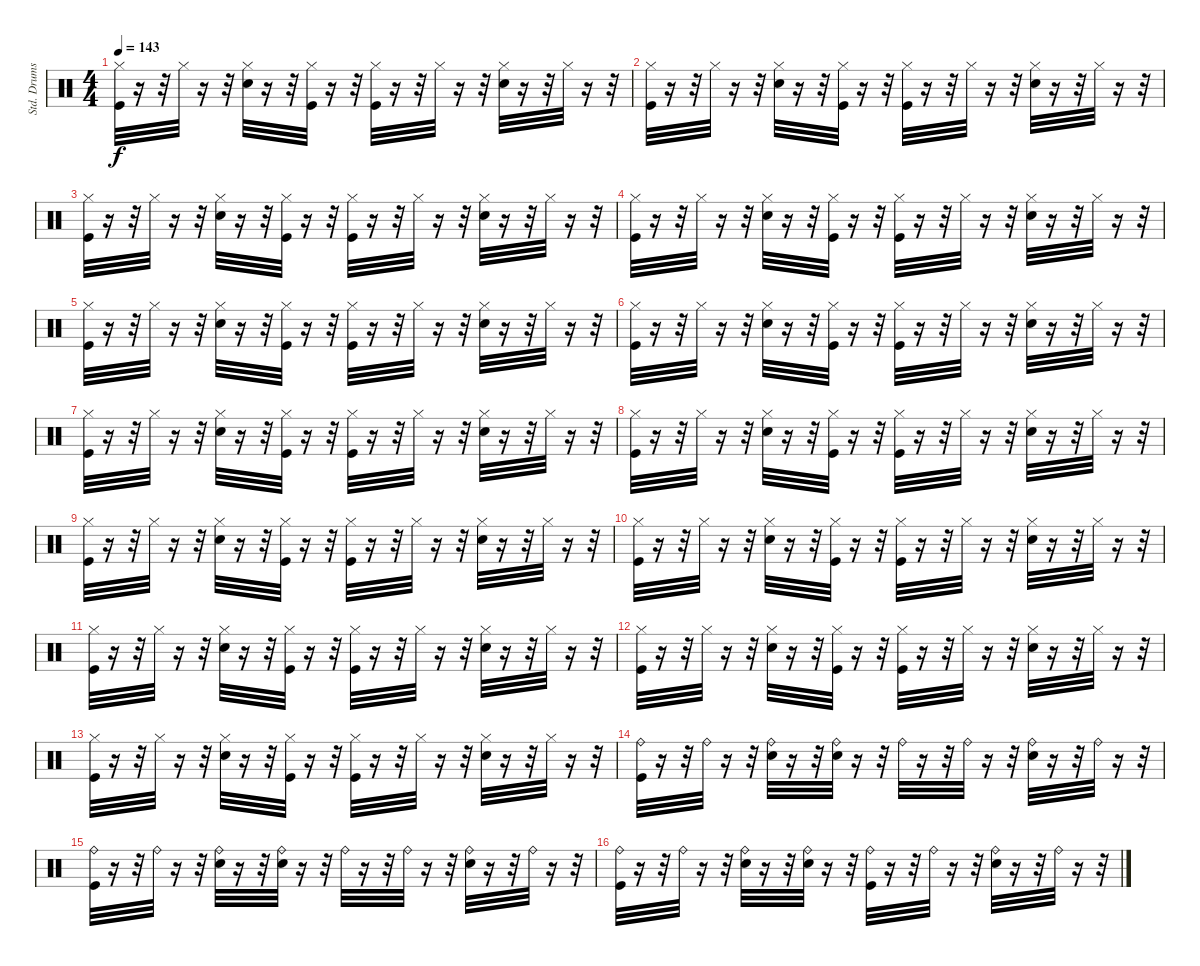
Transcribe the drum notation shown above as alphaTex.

\track ("Std. Drums " "Std. Drums") {instrument percussion}
\staff {score}
\articulation defaults
\ts (4 4)
\tempo 143
\clef neutral
\ks c
("Hi-Hat (closed)" "Kick (hit)").32{dy f} r.16 r.32 "Hi-Hat (closed)".32 r.16 r.32 ("Hi-Hat (closed)" "Snare (hit) 2").32 r.16 r.32 ("Hi-Hat (closed)" "Kick (hit)").32 r.16 r.32 ("Hi-Hat (closed)" "Kick (hit)").32 r.16 r.32 "Hi-Hat (closed)".32 r.16 r.32 ("Hi-Hat (closed)" "Snare (hit) 2").32 r.16 r.32 "Hi-Hat (closed)".32 r.16 r.32 |
("Hi-Hat (closed)" "Kick (hit)").32 r.16 r.32 "Hi-Hat (closed)".32 r.16 r.32 ("Hi-Hat (closed)" "Snare (hit) 2").32 r.16 r.32 ("Hi-Hat (closed)" "Kick (hit)").32 r.16 r.32 ("Hi-Hat (closed)" "Kick (hit)").32 r.16 r.32 "Hi-Hat (closed)".32 r.16 r.32 ("Hi-Hat (closed)" "Snare (hit) 2").32 r.16 r.32 "Hi-Hat (closed)".32 r.16 r.32 |
("Hi-Hat (closed)" "Kick (hit)").32 r.16 r.32 "Hi-Hat (closed)".32 r.16 r.32 ("Hi-Hat (closed)" "Snare (hit) 2").32 r.16 r.32 ("Hi-Hat (closed)" "Kick (hit)").32 r.16 r.32 ("Hi-Hat (closed)" "Kick (hit)").32 r.16 r.32 "Hi-Hat (closed)".32 r.16 r.32 ("Hi-Hat (closed)" "Snare (hit) 2").32 r.16 r.32 "Hi-Hat (closed)".32 r.16 r.32 |
("Hi-Hat (closed)" "Kick (hit)").32 r.16 r.32 "Hi-Hat (closed)".32 r.16 r.32 ("Hi-Hat (closed)" "Snare (hit) 2").32 r.16 r.32 ("Hi-Hat (closed)" "Kick (hit)").32 r.16 r.32 ("Hi-Hat (closed)" "Kick (hit)").32 r.16 r.32 "Hi-Hat (closed)".32 r.16 r.32 ("Hi-Hat (closed)" "Snare (hit) 2").32 r.16 r.32 "Hi-Hat (closed)".32 r.16 r.32 |
("Hi-Hat (closed)" "Kick (hit)").32 r.16 r.32 "Hi-Hat (closed)".32 r.16 r.32 ("Hi-Hat (closed)" "Snare (hit) 2").32 r.16 r.32 ("Hi-Hat (closed)" "Kick (hit)").32 r.16 r.32 ("Hi-Hat (closed)" "Kick (hit)").32 r.16 r.32 "Hi-Hat (closed)".32 r.16 r.32 ("Hi-Hat (closed)" "Snare (hit) 2").32 r.16 r.32 "Hi-Hat (closed)".32 r.16 r.32 |
("Hi-Hat (closed)" "Kick (hit)").32 r.16 r.32 "Hi-Hat (closed)".32 r.16 r.32 ("Hi-Hat (closed)" "Snare (hit) 2").32 r.16 r.32 ("Hi-Hat (closed)" "Kick (hit)").32 r.16 r.32 ("Hi-Hat (closed)" "Kick (hit)").32 r.16 r.32 "Hi-Hat (closed)".32 r.16 r.32 ("Hi-Hat (closed)" "Snare (hit) 2").32 r.16 r.32 "Hi-Hat (closed)".32 r.16 r.32 |
("Hi-Hat (closed)" "Kick (hit)").32 r.16 r.32 "Hi-Hat (closed)".32 r.16 r.32 ("Hi-Hat (closed)" "Snare (hit) 2").32 r.16 r.32 ("Hi-Hat (closed)" "Kick (hit)").32 r.16 r.32 ("Hi-Hat (closed)" "Kick (hit)").32 r.16 r.32 "Hi-Hat (closed)".32 r.16 r.32 ("Hi-Hat (closed)" "Snare (hit) 2").32 r.16 r.32 "Hi-Hat (closed)".32 r.16 r.32 |
("Hi-Hat (closed)" "Kick (hit)").32 r.16 r.32 "Hi-Hat (closed)".32 r.16 r.32 ("Hi-Hat (closed)" "Snare (hit) 2").32 r.16 r.32 ("Hi-Hat (closed)" "Kick (hit)").32 r.16 r.32 ("Hi-Hat (closed)" "Kick (hit)").32 r.16 r.32 "Hi-Hat (closed)".32 r.16 r.32 ("Hi-Hat (closed)" "Snare (hit) 2").32 r.16 r.32 "Hi-Hat (closed)".32 r.16 r.32 |
("Hi-Hat (closed)" "Kick (hit)").32 r.16 r.32 "Hi-Hat (closed)".32 r.16 r.32 ("Hi-Hat (closed)" "Snare (hit) 2").32 r.16 r.32 ("Hi-Hat (closed)" "Kick (hit)").32 r.16 r.32 ("Hi-Hat (closed)" "Kick (hit)").32 r.16 r.32 "Hi-Hat (closed)".32 r.16 r.32 ("Hi-Hat (closed)" "Snare (hit) 2").32 r.16 r.32 "Hi-Hat (closed)".32 r.16 r.32 |
("Hi-Hat (closed)" "Kick (hit)").32 r.16 r.32 "Hi-Hat (closed)".32 r.16 r.32 ("Hi-Hat (closed)" "Snare (hit) 2").32 r.16 r.32 ("Hi-Hat (closed)" "Kick (hit)").32 r.16 r.32 ("Hi-Hat (closed)" "Kick (hit)").32 r.16 r.32 "Hi-Hat (closed)".32 r.16 r.32 ("Hi-Hat (closed)" "Snare (hit) 2").32 r.16 r.32 "Hi-Hat (closed)".32 r.16 r.32 |
("Hi-Hat (closed)" "Kick (hit)").32 r.16 r.32 "Hi-Hat (closed)".32 r.16 r.32 ("Hi-Hat (closed)" "Snare (hit) 2").32 r.16 r.32 ("Hi-Hat (closed)" "Kick (hit)").32 r.16 r.32 ("Hi-Hat (closed)" "Kick (hit)").32 r.16 r.32 "Hi-Hat (closed)".32 r.16 r.32 ("Hi-Hat (closed)" "Snare (hit) 2").32 r.16 r.32 "Hi-Hat (closed)".32 r.16 r.32 |
("Hi-Hat (closed)" "Kick (hit)").32 r.16 r.32 "Hi-Hat (closed)".32 r.16 r.32 ("Hi-Hat (closed)" "Snare (hit) 2").32 r.16 r.32 ("Hi-Hat (closed)" "Kick (hit)").32 r.16 r.32 ("Hi-Hat (closed)" "Kick (hit)").32 r.16 r.32 "Hi-Hat (closed)".32 r.16 r.32 ("Hi-Hat (closed)" "Snare (hit) 2").32 r.16 r.32 "Hi-Hat (closed)".32 r.16 r.32 |
("Hi-Hat (closed)" "Kick (hit)").32 r.16 r.32 "Hi-Hat (closed)".32 r.16 r.32 ("Hi-Hat (closed)" "Snare (hit) 2").32 r.16 r.32 ("Hi-Hat (closed)" "Kick (hit)").32 r.16 r.32 ("Hi-Hat (closed)" "Kick (hit)").32 r.16 r.32 "Hi-Hat (closed)".32 r.16 r.32 ("Hi-Hat (closed)" "Snare (hit) 2").32 r.16 r.32 "Hi-Hat (closed)".32 r.16 r.32 |
("Kick (hit)" "Ride (bell)").32 r.16 r.32 "Ride (bell)".32 r.16 r.32 ("Ride (bell)" "Snare (hit) 2").32 r.16 r.32 ("Ride (bell)" "Snare (hit) 2").32 r.16 r.32 "Ride (bell)".32 r.16 r.32 "Ride (bell)".32 r.16 r.32 ("Ride (bell)" "Snare (hit) 2").32 r.16 r.32 "Ride (bell)".32 r.16 r.32 |
("Ride (bell)" "Kick (hit)").32 r.16 r.32 "Ride (bell)".32 r.16 r.32 ("Snare (hit) 2" "Ride (bell)").32 r.16 r.32 ("Snare (hit) 2" "Ride (bell)").32 r.16 r.32 "Ride (bell)".32 r.16 r.32 "Ride (bell)".32 r.16 r.32 ("Ride (bell)" "Snare (hit) 2").32 r.16 r.32 "Ride (bell)".32 r.16 r.32 |
("Kick (hit)" "Ride (bell)").32 r.16 r.32 "Ride (bell)".32 r.16 r.32 ("Ride (bell)" "Snare (hit) 2").32 r.16 r.32 ("Snare (hit) 2" "Ride (bell)").32 r.16 r.32 ("Kick (hit)" "Ride (bell)").32 r.16 r.32 "Ride (bell)".32 r.16 r.32 ("Snare (hit) 2" "Ride (bell)").32 r.16 r.32 "Ride (bell)".32 r.16 r.32
